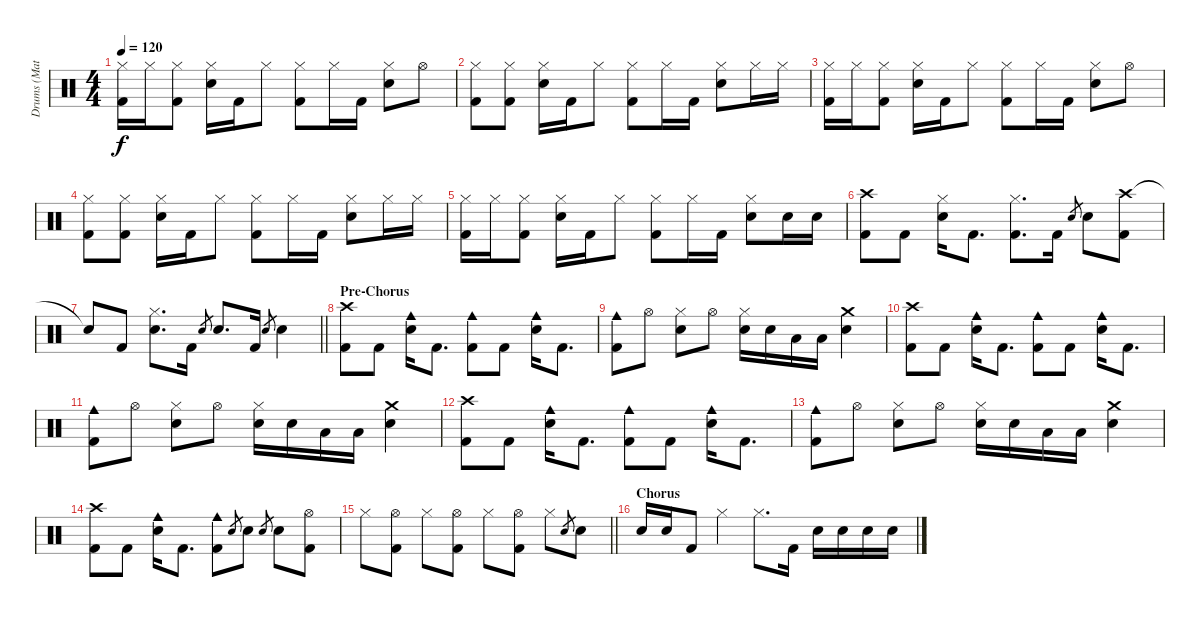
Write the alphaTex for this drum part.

\track ("Drums (Matt)" "Drums (Mat") {instrument percussion}
\staff {score}
\articulation defaults
\ts (4 4)
\tempo 120
\clef neutral
\ks c
("Hi-Hat (closed)" "Kick (hit) 2").16{dy f} "Hi-Hat (closed)".16 ("Hi-Hat (closed)" "Kick (hit) 2").8 ("Hi-Hat (closed)" "Snare (hit) 2").16 "Kick (hit) 2".16 "Hi-Hat (closed)".8 ("Hi-Hat (closed)" "Kick (hit) 2").8 "Hi-Hat (closed)".16 "Kick (hit) 2".16 ("Hi-Hat (closed)" "Snare (hit) 2").8 "Hi-Hat (open)".8 |
("Hi-Hat (closed)" "Kick (hit) 2").8 ("Hi-Hat (closed)" "Kick (hit) 2").8 ("Hi-Hat (closed)" "Snare (hit) 2").16 "Kick (hit) 2".16 "Hi-Hat (closed)".8 ("Hi-Hat (closed)" "Kick (hit) 2").8 "Hi-Hat (closed)".16 "Kick (hit) 2".16 ("Hi-Hat (closed)" "Snare (hit) 2").8 "Hi-Hat (closed)".16 "Hi-Hat (closed)".16 |
("Hi-Hat (closed)" "Kick (hit) 2").16 "Hi-Hat (closed)".16 ("Hi-Hat (closed)" "Kick (hit) 2").8 ("Hi-Hat (closed)" "Snare (hit) 2").16 "Kick (hit) 2".16 "Hi-Hat (closed)".8 ("Hi-Hat (closed)" "Kick (hit) 2").8 "Hi-Hat (closed)".16 "Kick (hit) 2".16 ("Hi-Hat (closed)" "Snare (hit) 2").8 "Hi-Hat (open)".8 |
("Hi-Hat (closed)" "Kick (hit) 2").8 ("Hi-Hat (closed)" "Kick (hit) 2").8 ("Hi-Hat (closed)" "Snare (hit) 2").16 "Kick (hit) 2".16 "Hi-Hat (closed)".8 ("Hi-Hat (closed)" "Kick (hit) 2").8 "Hi-Hat (closed)".16 "Kick (hit) 2".16 ("Hi-Hat (closed)" "Snare (hit) 2").8 "Hi-Hat (closed)".16 "Hi-Hat (closed)".16 |
("Hi-Hat (closed)" "Kick (hit) 2").16 "Hi-Hat (closed)".16 ("Hi-Hat (closed)" "Kick (hit) 2").8 ("Hi-Hat (closed)" "Snare (hit) 2").16 "Kick (hit) 2".16 "Hi-Hat (closed)".8 ("Hi-Hat (closed)" "Kick (hit) 2").8 "Hi-Hat (closed)".16 "Kick (hit) 2".16 ("Hi-Hat (closed)" "Snare (hit) 2").8 "Snare (hit) 2".16 "Snare (hit) 2".16 |
("Crash high (hit)" "Kick (hit) 2").8 "Kick (hit) 2".8 ("Hi-Hat (closed)" "Snare (hit) 2").16 "Kick (hit) 2".8{d} ("Hi-Hat (closed)" "Kick (hit) 2").8{d} "Kick (hit) 2".16 "Snare (hit) 2".8{gr} "Snare (hit) 2".8 ("Crash high (hit)" "Kick (hit) 2").8 |
\barLineRight lightlight "Snare (hit)"{t}.8 "Kick (hit) 2".8
("Hi-Hat (closed)" "Snare (hit) 2").8{d} "Kick (hit) 2".16 "Snare (hit) 2".8{gr} "Snare (hit) 2".8{d} "Kick (hit) 2".16 "Snare (hit) 2".8{gr} "Snare (hit) 2".4 |
\section ("" "Pre-Chorus")
("Crash high (hit)" "Kick (hit) 2").8 "Kick (hit) 2".8 ("Cowbell medium (hit)" "Snare (hit) 2").16 "Kick (hit) 2".8{d} ("Cowbell medium (hit)" "Kick (hit) 2").8 "Kick (hit) 2".8 ("Cowbell medium (hit)" "Snare (hit) 2").16 "Kick (hit) 2".8{d} |
("Cowbell medium (hit)" "Kick (hit) 2").8 "Hi-Hat (open)".8 ("Hi-Hat (closed)" "Snare (hit) 2").8 "Hi-Hat (open)".8 ("Hi-Hat (closed)" "Snare (hit) 2").16 "Snare (hit) 2".16 "Low Tom (hit)".16 "Low Tom (hit)".16 ("Crash medium (hit)" "Snare (hit) 2").4 |
("Crash high (hit)" "Kick (hit) 2").8 "Kick (hit) 2".8 ("Cowbell medium (hit)" "Snare (hit) 2").16 "Kick (hit) 2".8{d} ("Cowbell medium (hit)" "Kick (hit) 2").8 "Kick (hit) 2".8 ("Cowbell medium (hit)" "Snare (hit) 2").16 "Kick (hit) 2".8{d} |
("Cowbell medium (hit)" "Kick (hit) 2").8 "Hi-Hat (open)".8 ("Hi-Hat (closed)" "Snare (hit) 2").8 "Hi-Hat (open)".8 ("Hi-Hat (closed)" "Snare (hit) 2").16 "Snare (hit) 2".16 "Low Tom (hit)".16 "Low Tom (hit)".16 ("Crash medium (hit)" "Snare (hit) 2").4 |
("Crash high (hit)" "Kick (hit) 2").8 "Kick (hit) 2".8 ("Cowbell medium (hit)" "Snare (hit) 2").16 "Kick (hit) 2".8{d} ("Cowbell medium (hit)" "Kick (hit) 2").8 "Kick (hit) 2".8 ("Cowbell medium (hit)" "Snare (hit) 2").16 "Kick (hit) 2".8{d} |
("Cowbell medium (hit)" "Kick (hit) 2").8 "Hi-Hat (open)".8 ("Hi-Hat (closed)" "Snare (hit) 2").8 "Hi-Hat (open)".8 ("Hi-Hat (closed)" "Snare (hit) 2").16 "Snare (hit) 2".16 "Low Tom (hit)".16 "Low Tom (hit)".16 ("Crash medium (hit)" "Snare (hit) 2").4 |
("Crash high (hit)" "Kick (hit) 2").8 "Kick (hit) 2".8 ("Cowbell medium (hit)" "Snare (hit) 2").16 "Kick (hit) 2".8{d} ("Cowbell medium (hit)" "Kick (hit) 2").8 "Snare (hit) 2".8{gr} "Snare (hit) 2".8 "Snare (hit) 2".8{gr} "Snare (hit) 2".8 ("Hi-Hat (open)" "Kick (hit) 2").8 |
\barLineRight lightlight "Hi-Hat (closed)".8
("Hi-Hat (open)" "Kick (hit) 2").8 "Hi-Hat (closed)".8 ("Hi-Hat (open)" "Kick (hit) 2").8 "Hi-Hat (closed)".8 ("Hi-Hat (open)" "Kick (hit) 2").8 "Hi-Hat (closed)".8 "Snare (hit) 2".8{gr} "Snare (hit) 2".8 |
\section ("" "Chorus")
"Snare (hit) 2".16 "Snare (hit) 2".16 "Kick (hit) 2".8 "Hi-Hat (closed)".4 "Hi-Hat (closed)".8{d} "Kick (hit) 2".16 "Snare (hit) 2".16 "Snare (hit) 2".16 "Snare (hit) 2".16 "Snare (hit) 2".16
